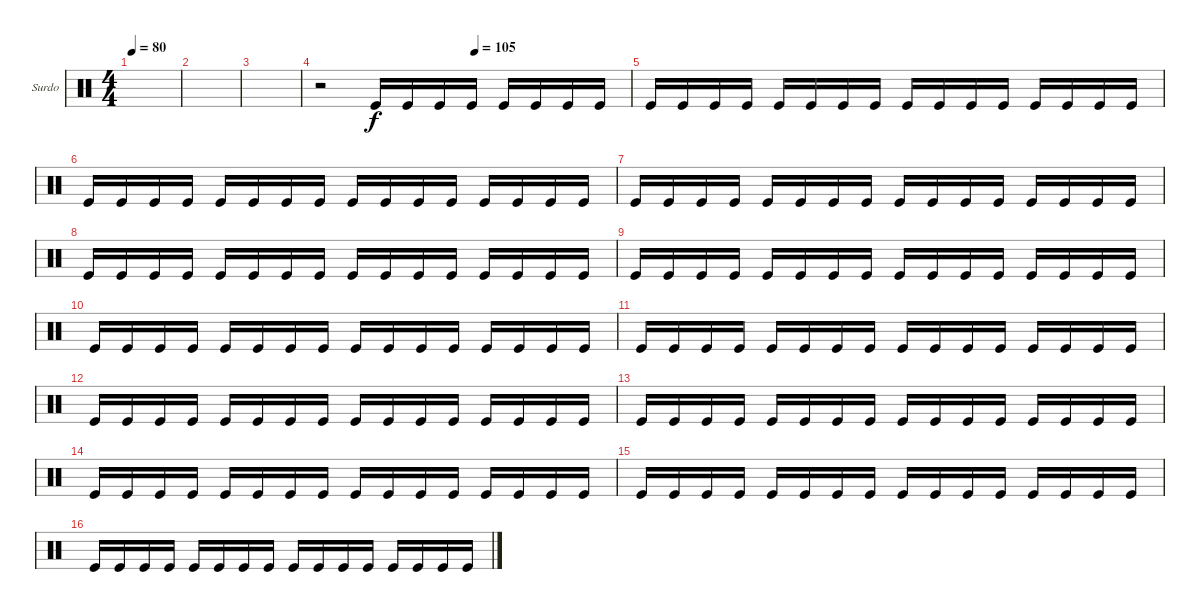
\bracketExtendMode groupsimilarinstruments
\firstSystemTrackNameOrientation horizontal
\otherSystemsTrackNameOrientation horizontal
\track ("Surdo" "Surdo") {instrument percussion}
\staff {score}
\articulation defaults
\ts (4 4)
\tempo 80
\clef neutral
\scale
0.333333
\ks c
|
\scale
0.333333 |
\scale
0.333333 |
\tempo (105 0.5)
\scale
0.333333 r.2 "Kick (hit)".16 "Kick (hit)".16 "Kick (hit)".16 "Kick (hit)".16 "Kick (hit)".16 "Kick (hit)".16 "Kick (hit)".16 "Kick (hit)".16 |
\scale
0.333333 "Kick (hit)".16 "Kick (hit)".16 "Kick (hit)".16 "Kick (hit)".16 "Kick (hit)".16 "Kick (hit)".16 "Kick (hit)".16 "Kick (hit)".16 "Kick (hit)".16 "Kick (hit)".16 "Kick (hit)".16 "Kick (hit)".16 "Kick (hit)".16 "Kick (hit)".16 "Kick (hit)".16 "Kick (hit)".16 |
\scale
0.333333 "Kick (hit)".16 "Kick (hit)".16 "Kick (hit)".16 "Kick (hit)".16 "Kick (hit)".16 "Kick (hit)".16 "Kick (hit)".16 "Kick (hit)".16 "Kick (hit)".16 "Kick (hit)".16 "Kick (hit)".16 "Kick (hit)".16 "Kick (hit)".16 "Kick (hit)".16 "Kick (hit)".16 "Kick (hit)".16 |
\scale
0.333333 "Kick (hit)".16 "Kick (hit)".16 "Kick (hit)".16 "Kick (hit)".16 "Kick (hit)".16 "Kick (hit)".16 "Kick (hit)".16 "Kick (hit)".16 "Kick (hit)".16 "Kick (hit)".16 "Kick (hit)".16 "Kick (hit)".16 "Kick (hit)".16 "Kick (hit)".16 "Kick (hit)".16 "Kick (hit)".16 |
\scale
0.333333 "Kick (hit)".16 "Kick (hit)".16 "Kick (hit)".16 "Kick (hit)".16 "Kick (hit)".16 "Kick (hit)".16 "Kick (hit)".16 "Kick (hit)".16 "Kick (hit)".16 "Kick (hit)".16 "Kick (hit)".16 "Kick (hit)".16 "Kick (hit)".16 "Kick (hit)".16 "Kick (hit)".16 "Kick (hit)".16 |
\scale
0.333333 "Kick (hit)".16 "Kick (hit)".16 "Kick (hit)".16 "Kick (hit)".16 "Kick (hit)".16 "Kick (hit)".16 "Kick (hit)".16 "Kick (hit)".16 "Kick (hit)".16 "Kick (hit)".16 "Kick (hit)".16 "Kick (hit)".16 "Kick (hit)".16 "Kick (hit)".16 "Kick (hit)".16 "Kick (hit)".16 |
\scale
0.333333 "Kick (hit)".16 "Kick (hit)".16 "Kick (hit)".16 "Kick (hit)".16 "Kick (hit)".16 "Kick (hit)".16 "Kick (hit)".16 "Kick (hit)".16 "Kick (hit)".16 "Kick (hit)".16 "Kick (hit)".16 "Kick (hit)".16 "Kick (hit)".16 "Kick (hit)".16 "Kick (hit)".16 "Kick (hit)".16 |
\scale
0.333333 "Kick (hit)".16 "Kick (hit)".16 "Kick (hit)".16 "Kick (hit)".16 "Kick (hit)".16 "Kick (hit)".16 "Kick (hit)".16 "Kick (hit)".16 "Kick (hit)".16 "Kick (hit)".16 "Kick (hit)".16 "Kick (hit)".16 "Kick (hit)".16 "Kick (hit)".16 "Kick (hit)".16 "Kick (hit)".16 |
\scale
0.333333 "Kick (hit)".16 "Kick (hit)".16 "Kick (hit)".16 "Kick (hit)".16 "Kick (hit)".16 "Kick (hit)".16 "Kick (hit)".16 "Kick (hit)".16 "Kick (hit)".16 "Kick (hit)".16 "Kick (hit)".16 "Kick (hit)".16 "Kick (hit)".16 "Kick (hit)".16 "Kick (hit)".16 "Kick (hit)".16 |
\scale
0.333333 "Kick (hit)".16 "Kick (hit)".16 "Kick (hit)".16 "Kick (hit)".16 "Kick (hit)".16 "Kick (hit)".16 "Kick (hit)".16 "Kick (hit)".16 "Kick (hit)".16 "Kick (hit)".16 "Kick (hit)".16 "Kick (hit)".16 "Kick (hit)".16 "Kick (hit)".16 "Kick (hit)".16 "Kick (hit)".16 |
\scale
0.333333 "Kick (hit)".16 "Kick (hit)".16 "Kick (hit)".16 "Kick (hit)".16 "Kick (hit)".16 "Kick (hit)".16 "Kick (hit)".16 "Kick (hit)".16 "Kick (hit)".16 "Kick (hit)".16 "Kick (hit)".16 "Kick (hit)".16 "Kick (hit)".16 "Kick (hit)".16 "Kick (hit)".16 "Kick (hit)".16 |
\scale
0.333333 "Kick (hit)".16 "Kick (hit)".16 "Kick (hit)".16 "Kick (hit)".16 "Kick (hit)".16 "Kick (hit)".16 "Kick (hit)".16 "Kick (hit)".16 "Kick (hit)".16 "Kick (hit)".16 "Kick (hit)".16 "Kick (hit)".16 "Kick (hit)".16 "Kick (hit)".16 "Kick (hit)".16 "Kick (hit)".16 |
\scale
0.333333 "Kick (hit)".16 "Kick (hit)".16 "Kick (hit)".16 "Kick (hit)".16 "Kick (hit)".16 "Kick (hit)".16 "Kick (hit)".16 "Kick (hit)".16 "Kick (hit)".16 "Kick (hit)".16 "Kick (hit)".16 "Kick (hit)".16 "Kick (hit)".16 "Kick (hit)".16 "Kick (hit)".16 "Kick (hit)".16
